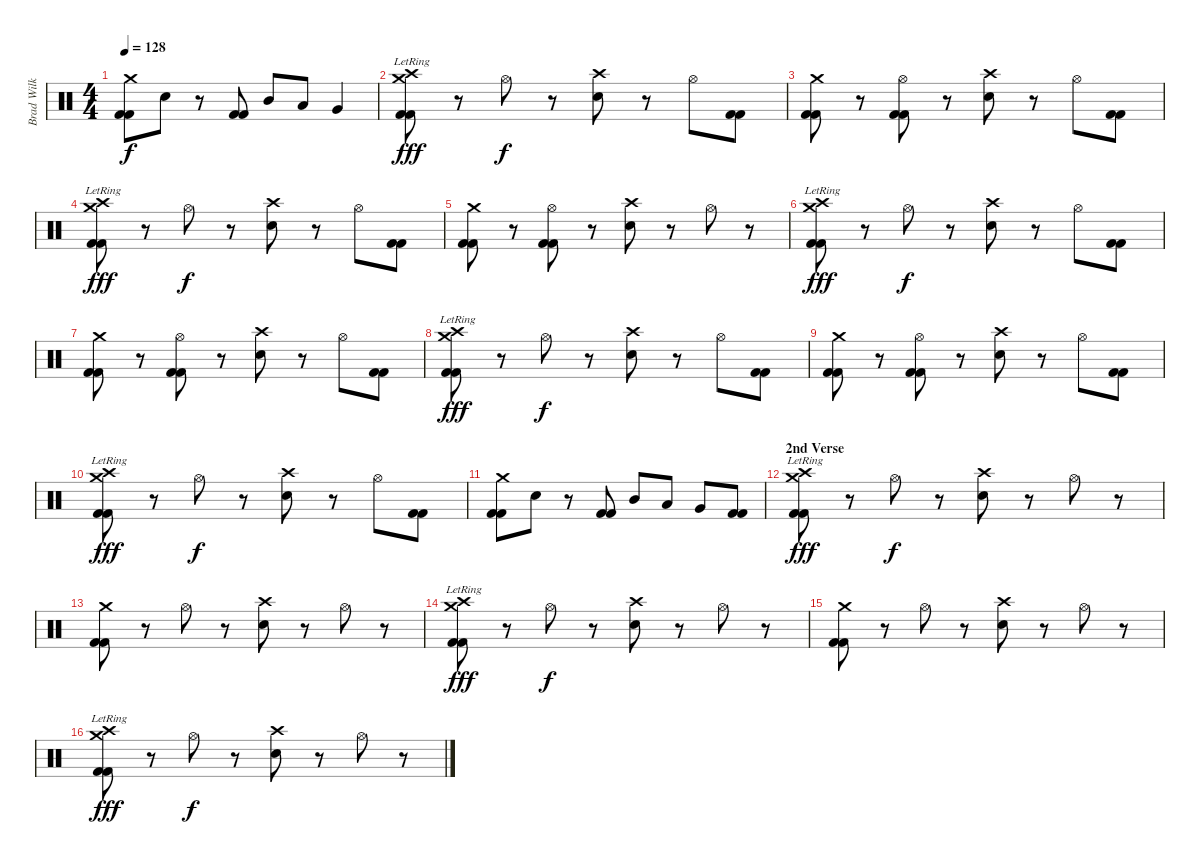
\track ("Brad Wilk" "Brad Wilk") {instrument percussion}
\staff {score}
\articulation defaults
\ts (4 4)
\tempo 128
\clef neutral
\ks c
("Crash medium (hit)" "Kick (hit) 2" "Kick (hit) 2").8{dy f} "Electric Snare (hit)".8 r.8 ("Kick (hit) 2" "Kick (hit) 2").8 "Mid Tom (hit)".8 "Low Tom (hit)".8 "Very Low Tom (hit)".4 |
("Crash high (hit)"{lr} "Crash medium (hit)"{lr} "Kick (hit) 2" "Kick (hit) 2").8{dy fff} r.8 "Hi-Hat (open)".8{dy f} r.8 ("Crash high (hit)" "Electric Snare (hit)").8 r.8 "Hi-Hat (open)".8 ("Kick (hit) 2" "Kick (hit) 2").8 |
("Crash medium (hit)" "Kick (hit) 2" "Kick (hit) 2").8 r.8 ("Hi-Hat (open)" "Kick (hit) 2" "Kick (hit) 2").8 r.8 ("Crash high (hit)" "Electric Snare (hit)").8 r.8 "Hi-Hat (open)".8 ("Kick (hit) 2" "Kick (hit) 2").8 |
("Crash high (hit)"{lr} "Crash medium (hit)"{lr} "Kick (hit) 2" "Kick (hit) 2").8{dy fff} r.8 "Hi-Hat (open)".8{dy f} r.8 ("Crash high (hit)" "Electric Snare (hit)").8 r.8 "Hi-Hat (open)".8 ("Kick (hit) 2" "Kick (hit) 2").8 |
("Crash medium (hit)" "Kick (hit) 2" "Kick (hit) 2").8 r.8 ("Hi-Hat (open)" "Kick (hit) 2" "Kick (hit) 2").8 r.8 ("Crash high (hit)" "Electric Snare (hit)").8 r.8 "Hi-Hat (open)".8 r.8 |
("Crash high (hit)"{lr} "Crash medium (hit)"{lr} "Kick (hit) 2" "Kick (hit) 2").8{dy fff} r.8 "Hi-Hat (open)".8{dy f} r.8 ("Crash high (hit)" "Electric Snare (hit)").8 r.8 "Hi-Hat (open)".8 ("Kick (hit) 2" "Kick (hit) 2").8 |
("Crash medium (hit)" "Kick (hit) 2" "Kick (hit) 2").8 r.8 ("Hi-Hat (open)" "Kick (hit) 2" "Kick (hit) 2").8 r.8 ("Crash high (hit)" "Electric Snare (hit)").8 r.8 "Hi-Hat (open)".8 ("Kick (hit) 2" "Kick (hit) 2").8 |
("Crash high (hit)"{lr} "Crash medium (hit)"{lr} "Kick (hit) 2" "Kick (hit) 2").8{dy fff} r.8 "Hi-Hat (open)".8{dy f} r.8 ("Crash high (hit)" "Electric Snare (hit)").8 r.8 "Hi-Hat (open)".8 ("Kick (hit) 2" "Kick (hit) 2").8 |
("Crash medium (hit)" "Kick (hit) 2" "Kick (hit) 2").8 r.8 ("Hi-Hat (open)" "Kick (hit) 2" "Kick (hit) 2").8 r.8 ("Crash high (hit)" "Electric Snare (hit)").8 r.8 "Hi-Hat (open)".8 ("Kick (hit) 2" "Kick (hit) 2").8 |
("Crash high (hit)"{lr} "Crash medium (hit)"{lr} "Kick (hit) 2" "Kick (hit) 2").8{dy fff} r.8 "Hi-Hat (open)".8{dy f} r.8 ("Crash high (hit)" "Electric Snare (hit)").8 r.8 "Hi-Hat (open)".8 ("Kick (hit) 2" "Kick (hit) 2").8 |
("Crash medium (hit)" "Kick (hit) 2" "Kick (hit) 2").8 "Electric Snare (hit)".8 r.8 ("Kick (hit) 2" "Kick (hit) 2").8 "Mid Tom (hit)".8 "Low Tom (hit)".8 "Very Low Tom (hit)".8 ("Kick (hit) 2" "Kick (hit) 2").8 |
\section ("" "2nd Verse")
("Crash high (hit)"{lr} "Crash medium (hit)"{lr} "Kick (hit) 2" "Kick (hit) 2").8{dy fff} r.8 "Hi-Hat (open)".8{dy f} r.8 ("Crash high (hit)" "Electric Snare (hit)").8 r.8 "Hi-Hat (open)".8 r.8 |
("Crash medium (hit)" "Kick (hit) 2" "Kick (hit) 2").8 r.8 "Hi-Hat (open)".8 r.8 ("Crash high (hit)" "Electric Snare (hit)").8 r.8 "Hi-Hat (open)".8 r.8 |
("Crash high (hit)"{lr} "Crash medium (hit)"{lr} "Kick (hit) 2" "Kick (hit) 2").8{dy fff} r.8 "Hi-Hat (open)".8{dy f} r.8 ("Crash high (hit)" "Electric Snare (hit)").8 r.8 "Hi-Hat (open)".8 r.8 |
("Crash medium (hit)" "Kick (hit) 2" "Kick (hit) 2").8 r.8 "Hi-Hat (open)".8 r.8 ("Crash high (hit)" "Electric Snare (hit)").8 r.8 "Hi-Hat (open)".8 r.8 |
("Crash high (hit)"{lr} "Crash medium (hit)"{lr} "Kick (hit) 2" "Kick (hit) 2").8{dy fff} r.8 "Hi-Hat (open)".8{dy f} r.8 ("Crash high (hit)" "Electric Snare (hit)").8 r.8 "Hi-Hat (open)".8 r.8
